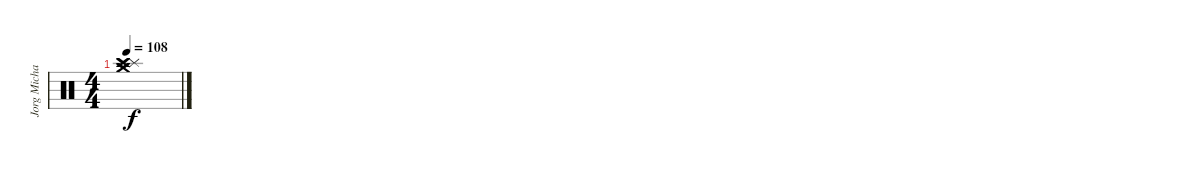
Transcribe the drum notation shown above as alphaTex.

\track ("Jorg Michael" "Jorg Micha") {instrument percussion}
\staff {score}
\articulation defaults
\ts (4 4)
\tempo 108
\clef neutral
\ks c
("Crash medium (hit)" "Crash medium (hit)" "Splash (hit)" "Crash high (hit)" "Crash high (hit)").1{dy f}
